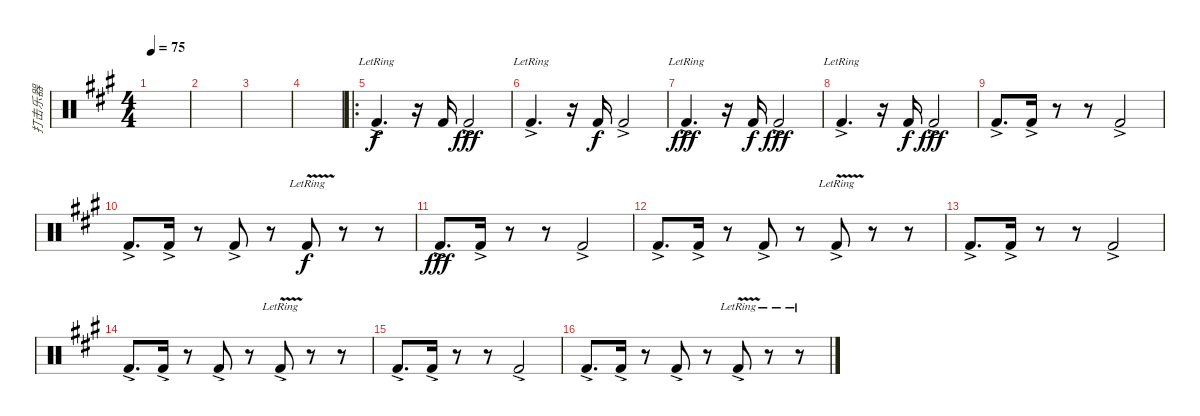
\track ("打击乐器" "打击乐器") {instrument percussion}
\staff {score}
\articulation defaults
\ts (4 4)
\tempo 75
\clef neutral
\ks a
|
|
|
|
\ro "Kick (hit) 2"{ac lr}.4{d}
r.16 "Kick (hit) 2".16{dy f} "Kick (hit) 2"{ac}.2{dy fff} |
"Kick (hit) 2"{ac lr}.4{d} r.16 "Kick (hit) 2".16{dy f} "Kick (hit) 2"{ac}.2 |
"Kick (hit) 2"{ac lr}.4{d dy fff} r.16 "Kick (hit) 2".16{dy f} "Kick (hit) 2"{ac}.2{dy fff} |
"Kick (hit) 2"{ac lr}.4{d} r.16 "Kick (hit) 2".16{dy f} "Kick (hit) 2"{ac}.2{dy fff} |
"Kick (hit) 2"{ac}.8{d} "Kick (hit) 2"{ac}.16 r.8 r.8 "Kick (hit) 2"{ac}.2 |
"Kick (hit) 2"{ac}.8{d} "Kick (hit) 2"{ac}.16 r.8 "Kick (hit) 2"{ac}.8 r.8 "Kick (hit) 2"{v lr}.8{dy f} r.8 r.8 |
"Kick (hit) 2"{ac}.8{d dy fff} "Kick (hit) 2"{ac}.16 r.8 r.8 "Kick (hit) 2"{ac}.2 |
"Kick (hit) 2"{ac}.8{d} "Kick (hit) 2"{ac}.16 r.8 "Kick (hit) 2"{ac}.8 r.8 "Kick (hit) 2"{v ac lr}.8 r.8 r.8 |
"Kick (hit) 2"{ac}.8{d} "Kick (hit) 2"{ac}.16 r.8 r.8 "Kick (hit) 2"{ac}.2 |
"Kick (hit) 2"{ac}.8{d} "Kick (hit) 2"{ac}.16 r.8 "Kick (hit) 2"{ac}.8 r.8 "Kick (hit) 2"{v ac lr}.8 r.8 r.8 |
"Kick (hit) 2"{ac}.8{d} "Kick (hit) 2"{ac}.16 r.8 r.8 "Kick (hit) 2"{ac}.2 |
"Kick (hit) 2"{ac}.8{d} "Kick (hit) 2"{ac}.16 r.8 "Kick (hit) 2"{ac}.8 r.8 "Kick (hit) 2"{v ac lr}.8 r.8 r.8
